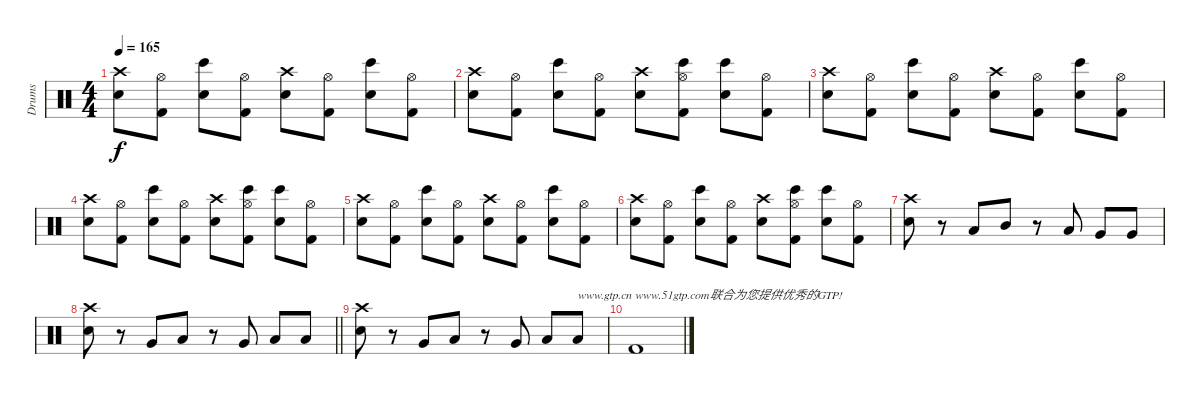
\track ("Drums" "Drums") {instrument percussion}
\staff {score}
\articulation defaults
\ts (4 4)
\tempo 165
\clef neutral
\ks c
("Crash high (hit)" "Electric Snare (hit)").8{dy f} ("Hi-Hat (open)" "Kick (hit) 2").8 ("Electric Snare (hit)" "Bongo High (hit)").8 ("Hi-Hat (open)" "Kick (hit) 2").8 ("Crash high (hit)" "Electric Snare (hit)").8 ("Hi-Hat (open)" "Kick (hit) 2").8 ("Electric Snare (hit)" "Bongo High (hit)").8 ("Hi-Hat (open)" "Kick (hit) 2").8 |
("Crash high (hit)" "Electric Snare (hit)").8 ("Hi-Hat (open)" "Kick (hit) 2").8 ("Electric Snare (hit)" "Bongo High (hit)").8 ("Hi-Hat (open)" "Kick (hit) 2").8 ("Crash high (hit)" "Electric Snare (hit)").8 ("Hi-Hat (open)" "Kick (hit) 2" "Bongo High (hit)").8 ("Electric Snare (hit)" "Bongo High (hit)").8 ("Hi-Hat (open)" "Kick (hit) 2").8 |
("Crash high (hit)" "Electric Snare (hit)").8 ("Hi-Hat (open)" "Kick (hit) 2").8 ("Electric Snare (hit)" "Bongo High (hit)").8 ("Hi-Hat (open)" "Kick (hit) 2").8 ("Crash high (hit)" "Electric Snare (hit)").8 ("Hi-Hat (open)" "Kick (hit) 2").8 ("Electric Snare (hit)" "Bongo High (hit)").8 ("Hi-Hat (open)" "Kick (hit) 2").8 |
("Crash high (hit)" "Electric Snare (hit)").8 ("Hi-Hat (open)" "Kick (hit) 2").8 ("Electric Snare (hit)" "Bongo High (hit)").8 ("Hi-Hat (open)" "Kick (hit) 2").8 ("Crash high (hit)" "Electric Snare (hit)").8 ("Hi-Hat (open)" "Kick (hit) 2" "Bongo High (hit)").8 ("Electric Snare (hit)" "Bongo High (hit)").8 ("Hi-Hat (open)" "Kick (hit) 2").8 |
("Crash high (hit)" "Electric Snare (hit)").8 ("Hi-Hat (open)" "Kick (hit) 2").8 ("Electric Snare (hit)" "Bongo High (hit)").8 ("Hi-Hat (open)" "Kick (hit) 2").8 ("Crash high (hit)" "Electric Snare (hit)").8 ("Hi-Hat (open)" "Kick (hit) 2").8 ("Electric Snare (hit)" "Bongo High (hit)").8 ("Hi-Hat (open)" "Kick (hit) 2").8 |
("Crash high (hit)" "Electric Snare (hit)").8 ("Hi-Hat (open)" "Kick (hit) 2").8 ("Electric Snare (hit)" "Bongo High (hit)").8 ("Hi-Hat (open)" "Kick (hit) 2").8 ("Crash high (hit)" "Electric Snare (hit)").8 ("Hi-Hat (open)" "Kick (hit) 2" "Bongo High (hit)").8 ("Electric Snare (hit)" "Bongo High (hit)").8 ("Hi-Hat (open)" "Kick (hit) 2").8 |
("Crash high (hit)" "Electric Snare (hit)").8 r.8 "Low Tom (hit)".8 "Mid Tom (hit)".8 r.8 "Low Tom (hit)".8 "Very Low Tom (hit)".8 "Very Low Tom (hit)".8 |
\barLineRight lightlight
("Crash high (hit)" "Electric Snare (hit)").8 r.8 "Very Low Tom (hit)".8 "Low Tom (hit)".8 r.8 "Very Low Tom (hit)".8 "Low Floor Tom (hit)".8 "Low Floor Tom (hit)".8 |
("Crash high (hit)" "Electric Snare (hit)").8 r.8 "Very Low Tom (hit)".8 "Low Tom (hit)".8 r.8 "Very Low Tom (hit)".8 "Low Floor Tom (hit)".8 "Low Floor Tom (hit)".8{txt "www.gtp.cn www.51gtp.com联合为您提供优秀的GTP!"} |
"Kick (hit) 2".1
